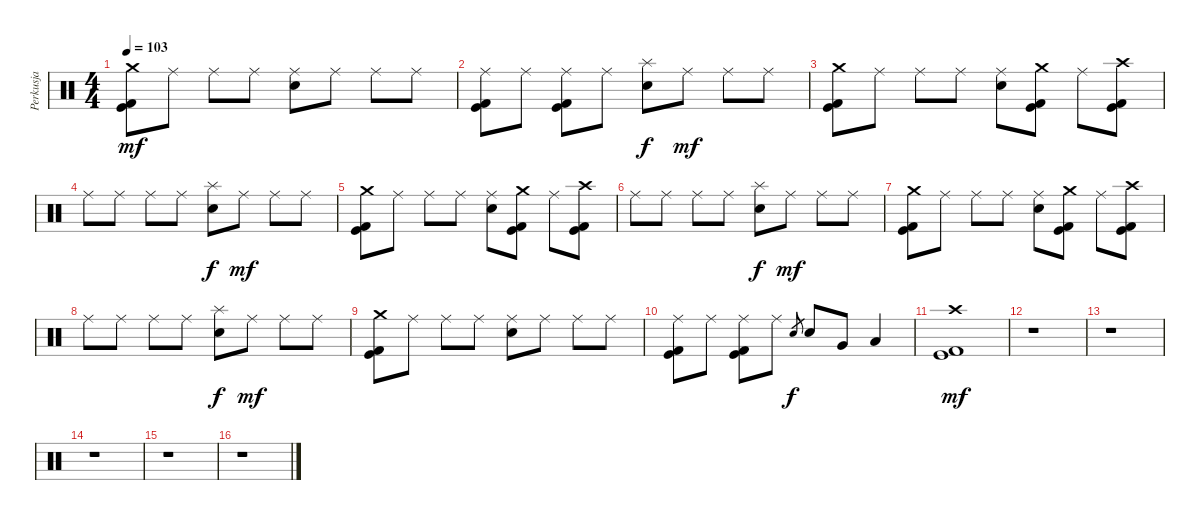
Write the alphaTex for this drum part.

\track ("Perkusja" "Perkusja") {instrument percussion}
\staff {score}
\articulation defaults
\ts (4 4)
\tempo 103
\clef neutral
\ks c
("Kick (hit) 2" "Kick (hit)" "Crash medium (hit)").8{dy mf} "Ride (middle)".8 "Ride (middle)".8 "Ride (middle)".8 ("Snare (hit) 2" "Ride (middle)").8 "Ride (middle)".8 "Ride (middle)".8 "Ride (middle)".8 |
("Kick (hit) 2" "Kick (hit)" "Ride (middle)").8 "Ride (middle)".8 ("Kick (hit)" "Kick (hit) 2" "Ride (middle)").8 "Ride (middle)".8 ("Snare (hit) 2" "Splash (hit)").8{dy f} "Ride (middle)".8{dy mf} "Ride (middle)".8 "Ride (middle)".8 |
("Kick (hit) 2" "Kick (hit)" "Crash medium (hit)").8 "Ride (middle)".8 "Ride (middle)".8 "Ride (middle)".8 ("Snare (hit) 2" "Ride (middle)").8 ("Kick (hit) 2" "Kick (hit)" "Crash medium (hit)").8 "Ride (middle)".8 ("Kick (hit) 2" "Kick (hit)" "Crash high (hit)").8 |
"Ride (middle)".8 "Ride (middle)".8 "Ride (middle)".8 "Ride (middle)".8 ("Snare (hit) 2" "Splash (hit)").8{dy f} "Ride (middle)".8{dy mf} "Ride (middle)".8 "Ride (middle)".8 |
("Kick (hit) 2" "Kick (hit)" "Crash medium (hit)").8 "Ride (middle)".8 "Ride (middle)".8 "Ride (middle)".8 ("Snare (hit) 2" "Ride (middle)").8 ("Kick (hit) 2" "Kick (hit)" "Crash medium (hit)").8 "Ride (middle)".8 ("Kick (hit) 2" "Kick (hit)" "Crash high (hit)").8 |
"Ride (middle)".8 "Ride (middle)".8 "Ride (middle)".8 "Ride (middle)".8 ("Snare (hit) 2" "Splash (hit)").8{dy f} "Ride (middle)".8{dy mf} "Ride (middle)".8 "Ride (middle)".8 |
("Kick (hit) 2" "Kick (hit)" "Crash medium (hit)").8 "Ride (middle)".8 "Ride (middle)".8 "Ride (middle)".8 ("Snare (hit) 2" "Ride (middle)").8 ("Kick (hit) 2" "Kick (hit)" "Crash medium (hit)").8 "Ride (middle)".8 ("Kick (hit) 2" "Kick (hit)" "Crash high (hit)").8 |
"Ride (middle)".8 "Ride (middle)".8 "Ride (middle)".8 "Ride (middle)".8 ("Snare (hit) 2" "Splash (hit)").8{dy f} "Ride (middle)".8{dy mf} "Ride (middle)".8 "Ride (middle)".8 |
("Kick (hit) 2" "Kick (hit)" "Crash medium (hit)").8 "Ride (middle)".8 "Ride (middle)".8 "Ride (middle)".8 ("Snare (hit) 2" "Ride (middle)").8 "Ride (middle)".8 "Ride (middle)".8 "Ride (middle)".8 |
("Kick (hit) 2" "Kick (hit)" "Ride (middle)").8 "Ride (middle)".8 ("Kick (hit)" "Kick (hit) 2" "Ride (middle)").8 "Ride (middle)".8 "Snare (hit) 2".8{gr dy f} "Snare (hit) 2".8 "Very Low Tom (hit)".8 "Low Floor Tom (hit)".4 |
("Kick (hit) 2" "Kick (hit)" "Crash high (hit)").1{dy mf} |
r.1 |
r.1 |
r.1 |
r.1 |
r.1
